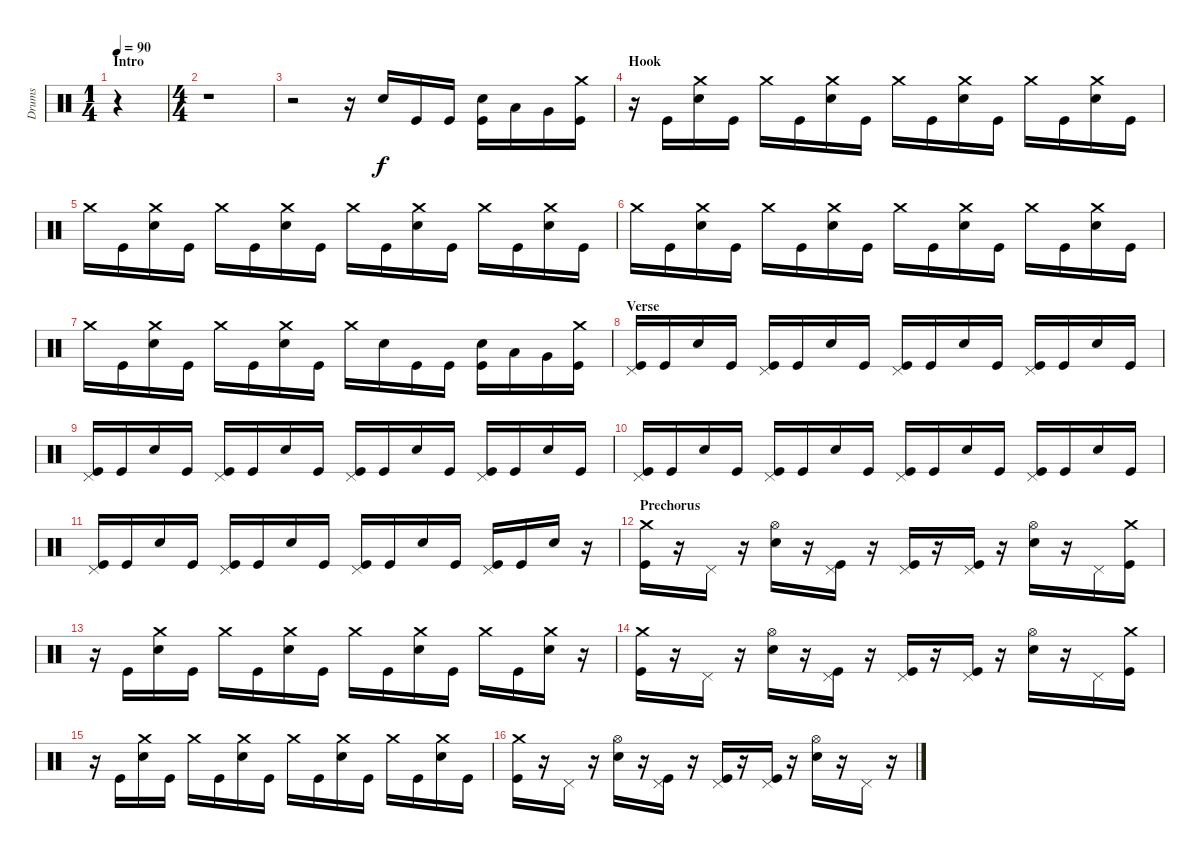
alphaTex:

\track ("Drums" "Drums") {instrument percussion}
\staff {score}
\articulation defaults
\ts (1 4)
\section ("" "Intro")
\tempo 90
\clef neutral
\ks c
r.4{dy f} |
\ts (4 4)
r.1 |
r.2 r.16 "Snare (hit) 2".16 "Kick (hit)".16 "Kick (hit)".16 ("Snare (hit) 2" "Kick (hit)").16 "Low Tom (hit)".16 "Very Low Tom (hit)".16 ("Crash medium (hit)" "Kick (hit)").16 |
\section ("" "Hook")
r.16 "Kick (hit)".16 ("Crash medium (hit)" "Snare (hit) 2").16 "Kick (hit)".16 "Crash medium (hit)".16 "Kick (hit)".16 ("Crash medium (hit)" "Snare (hit) 2").16 "Kick (hit)".16 "Crash medium (hit)".16 "Kick (hit)".16 ("Crash medium (hit)" "Snare (hit) 2").16 "Kick (hit)".16 "Crash medium (hit)".16 "Kick (hit)".16 ("Crash medium (hit)" "Snare (hit) 2").16 "Kick (hit)".16 |
"Crash medium (hit)".16 "Kick (hit)".16 ("Crash medium (hit)" "Snare (hit) 2").16 "Kick (hit)".16 "Crash medium (hit)".16 "Kick (hit)".16 ("Crash medium (hit)" "Snare (hit) 2").16 "Kick (hit)".16 "Crash medium (hit)".16 "Kick (hit)".16 ("Crash medium (hit)" "Snare (hit) 2").16 "Kick (hit)".16 "Crash medium (hit)".16 "Kick (hit)".16 ("Crash medium (hit)" "Snare (hit) 2").16 "Kick (hit)".16 |
"Crash medium (hit)".16 "Kick (hit)".16 ("Crash medium (hit)" "Snare (hit) 2").16 "Kick (hit)".16 "Crash medium (hit)".16 "Kick (hit)".16 ("Crash medium (hit)" "Snare (hit) 2").16 "Kick (hit)".16 "Crash medium (hit)".16 "Kick (hit)".16 ("Crash medium (hit)" "Snare (hit) 2").16 "Kick (hit)".16 "Crash medium (hit)".16 "Kick (hit)".16 ("Crash medium (hit)" "Snare (hit) 2").16 "Kick (hit)".16 |
"Crash medium (hit)".16 "Kick (hit)".16 ("Crash medium (hit)" "Snare (hit) 2").16 "Kick (hit)".16 "Crash medium (hit)".16 "Kick (hit)".16 ("Crash medium (hit)" "Snare (hit) 2").16 "Kick (hit)".16 "Crash medium (hit)".16 "Snare (hit) 2".16 "Kick (hit)".16 "Kick (hit)".16 ("Snare (hit) 2" "Kick (hit)").16 "Low Tom (hit)".16 "Very Low Tom (hit)".16 ("Crash medium (hit)" "Kick (hit)").16 |
\section ("" "Verse")
("Pedal Hi-Hat (hit)" "Kick (hit)").16 "Kick (hit)".16 "Snare (hit) 2".16 "Kick (hit)".16 ("Pedal Hi-Hat (hit)" "Kick (hit)").16 "Kick (hit)".16 "Snare (hit) 2".16 "Kick (hit)".16 ("Pedal Hi-Hat (hit)" "Kick (hit)").16 "Kick (hit)".16 "Snare (hit) 2".16 "Kick (hit)".16 ("Pedal Hi-Hat (hit)" "Kick (hit)").16 "Kick (hit)".16 "Snare (hit) 2".16 "Kick (hit)".16 |
("Pedal Hi-Hat (hit)" "Kick (hit)").16 "Kick (hit)".16 "Snare (hit) 2".16 "Kick (hit)".16 ("Pedal Hi-Hat (hit)" "Kick (hit)").16 "Kick (hit)".16 "Snare (hit) 2".16 "Kick (hit)".16 ("Pedal Hi-Hat (hit)" "Kick (hit)").16 "Kick (hit)".16 "Snare (hit) 2".16 "Kick (hit)".16 ("Pedal Hi-Hat (hit)" "Kick (hit)").16 "Kick (hit)".16 "Snare (hit) 2".16 "Kick (hit)".16 |
("Pedal Hi-Hat (hit)" "Kick (hit)").16 "Kick (hit)".16 "Snare (hit) 2".16 "Kick (hit)".16 ("Pedal Hi-Hat (hit)" "Kick (hit)").16 "Kick (hit)".16 "Snare (hit) 2".16 "Kick (hit)".16 ("Pedal Hi-Hat (hit)" "Kick (hit)").16 "Kick (hit)".16 "Snare (hit) 2".16 "Kick (hit)".16 ("Pedal Hi-Hat (hit)" "Kick (hit)").16 "Kick (hit)".16 "Snare (hit) 2".16 "Kick (hit)".16 |
("Pedal Hi-Hat (hit)" "Kick (hit)").16 "Kick (hit)".16 "Snare (hit) 2".16 "Kick (hit)".16 ("Pedal Hi-Hat (hit)" "Kick (hit)").16 "Kick (hit)".16 "Snare (hit) 2".16 "Kick (hit)".16 ("Pedal Hi-Hat (hit)" "Kick (hit)").16 "Kick (hit)".16 "Snare (hit) 2".16 "Kick (hit)".16 ("Pedal Hi-Hat (hit)" "Kick (hit)").16 "Kick (hit)".16 "Snare (hit) 2".16 r.16 |
\section ("" "Prechorus")
("Crash medium (hit)" "Kick (hit)").16 r.16 "Pedal Hi-Hat (hit)".16 r.16 ("Hi-Hat (open)" "Snare (hit) 2").16 r.16 ("Pedal Hi-Hat (hit)" "Kick (hit)").16 r.16 ("Pedal Hi-Hat (hit)" "Kick (hit)").16 r.16 ("Pedal Hi-Hat (hit)" "Kick (hit)").16 r.16 ("Hi-Hat (open)" "Snare (hit) 2").16 r.16 "Pedal Hi-Hat (hit)".16 ("Crash medium (hit)" "Kick (hit)").16 |
r.16 "Kick (hit)".16 ("Crash medium (hit)" "Snare (hit) 2").16 "Kick (hit)".16 "Crash medium (hit)".16 "Kick (hit)".16 ("Crash medium (hit)" "Snare (hit) 2").16 "Kick (hit)".16 "Crash medium (hit)".16 "Kick (hit)".16 ("Crash medium (hit)" "Snare (hit) 2").16 "Kick (hit)".16 "Crash medium (hit)".16 "Kick (hit)".16 ("Crash medium (hit)" "Snare (hit) 2").16 r.16 |
("Crash medium (hit)" "Kick (hit)").16 r.16 "Pedal Hi-Hat (hit)".16 r.16 ("Hi-Hat (open)" "Snare (hit) 2").16 r.16 ("Pedal Hi-Hat (hit)" "Kick (hit)").16 r.16 ("Pedal Hi-Hat (hit)" "Kick (hit)").16 r.16 ("Pedal Hi-Hat (hit)" "Kick (hit)").16 r.16 ("Hi-Hat (open)" "Snare (hit) 2").16 r.16 "Pedal Hi-Hat (hit)".16 ("Crash medium (hit)" "Kick (hit)").16 |
r.16 "Kick (hit)".16 ("Crash medium (hit)" "Snare (hit) 2").16 "Kick (hit)".16 "Crash medium (hit)".16 "Kick (hit)".16 ("Crash medium (hit)" "Snare (hit) 2").16 "Kick (hit)".16 "Crash medium (hit)".16 "Kick (hit)".16 ("Crash medium (hit)" "Snare (hit) 2").16 "Kick (hit)".16 "Crash medium (hit)".16 "Kick (hit)".16 ("Crash medium (hit)" "Snare (hit) 2").16 "Kick (hit)".16 |
("Crash medium (hit)" "Kick (hit)").16 r.16 "Pedal Hi-Hat (hit)".16 r.16 ("Hi-Hat (open)" "Snare (hit) 2").16 r.16 ("Pedal Hi-Hat (hit)" "Kick (hit)").16 r.16 ("Pedal Hi-Hat (hit)" "Kick (hit)").16 r.16 ("Pedal Hi-Hat (hit)" "Kick (hit)").16 r.16 ("Hi-Hat (open)" "Snare (hit) 2").16 r.16 "Pedal Hi-Hat (hit)".16 r.16
